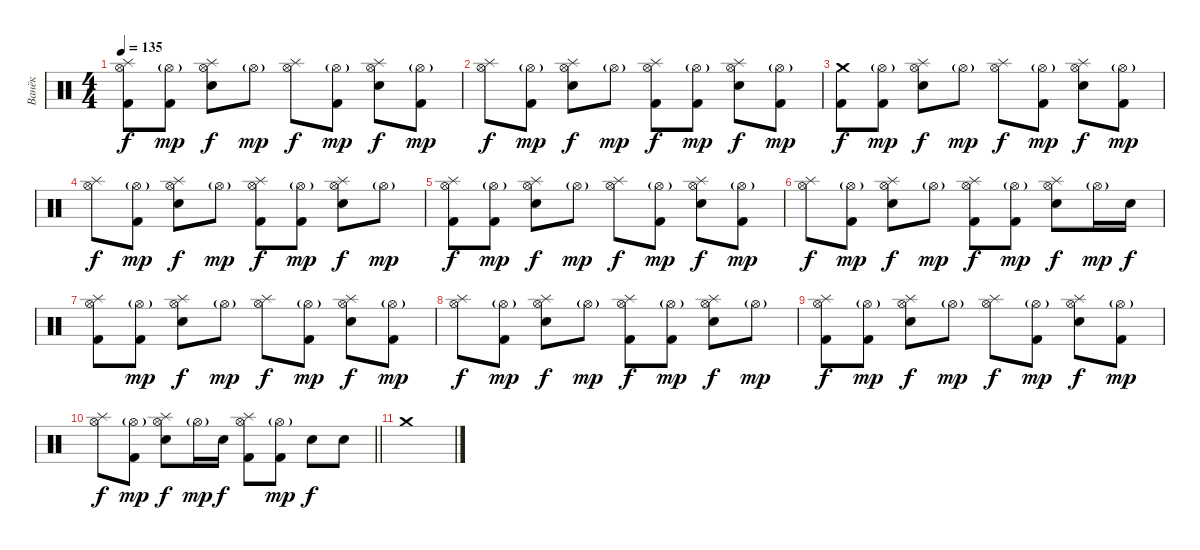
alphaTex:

\track ("Ванёк" "Ванёк") {instrument percussion}
\staff {score}
\articulation defaults
\ts (4 4)
\tempo 135
\clef neutral
\ks c
("Hi-Hat (open)" "Splash (hit)" "Kick (hit) 2").8{dy f} ("Hi-Hat (open)"{g} "Kick (hit) 2").8{dy mp} ("Hi-Hat (open)" "Splash (hit)" "Snare (hit) 2").8{dy f} "Hi-Hat (open)"{g}.8{dy mp} ("Hi-Hat (open)" "Splash (hit)").8{dy f} ("Hi-Hat (open)"{g} "Kick (hit) 2").8{dy mp} ("Hi-Hat (open)" "Splash (hit)" "Snare (hit) 2").8{dy f} ("Hi-Hat (open)"{g} "Kick (hit) 2").8{dy mp} |
("Hi-Hat (open)" "Splash (hit)").8{dy f} ("Hi-Hat (open)"{g} "Kick (hit) 2").8{dy mp} ("Hi-Hat (open)" "Splash (hit)" "Snare (hit) 2").8{dy f} "Hi-Hat (open)"{g}.8{dy mp} ("Hi-Hat (open)" "Splash (hit)" "Kick (hit) 2").8{dy f} ("Hi-Hat (open)"{g} "Kick (hit) 2").8{dy mp} ("Hi-Hat (open)" "Splash (hit)" "Snare (hit) 2").8{dy f} ("Hi-Hat (open)"{g} "Kick (hit) 2").8{dy mp} |
("Crash medium (hit)" "Kick (hit) 2").8{dy f} ("Hi-Hat (open)"{g} "Kick (hit) 2").8{dy mp} ("Hi-Hat (open)" "Splash (hit)" "Snare (hit) 2").8{dy f} "Hi-Hat (open)"{g}.8{dy mp} ("Hi-Hat (open)" "Splash (hit)").8{dy f} ("Hi-Hat (open)"{g} "Kick (hit) 2").8{dy mp} ("Hi-Hat (open)" "Splash (hit)" "Snare (hit) 2").8{dy f} ("Hi-Hat (open)"{g} "Kick (hit) 2").8{dy mp} |
("Hi-Hat (open)" "Splash (hit)").8{dy f} ("Hi-Hat (open)"{g} "Kick (hit) 2").8{dy mp} ("Hi-Hat (open)" "Splash (hit)" "Snare (hit) 2").8{dy f} "Hi-Hat (open)"{g}.8{dy mp} ("Hi-Hat (open)" "Splash (hit)" "Kick (hit) 2").8{dy f} ("Hi-Hat (open)"{g} "Kick (hit) 2").8{dy mp} ("Hi-Hat (open)" "Splash (hit)" "Snare (hit) 2").8{dy f} "Hi-Hat (open)"{g}.8{dy mp} |
("Hi-Hat (open)" "Splash (hit)" "Kick (hit) 2").8{dy f} ("Hi-Hat (open)"{g} "Kick (hit) 2").8{dy mp} ("Hi-Hat (open)" "Splash (hit)" "Snare (hit) 2").8{dy f} "Hi-Hat (open)"{g}.8{dy mp} ("Hi-Hat (open)" "Splash (hit)").8{dy f} ("Hi-Hat (open)"{g} "Kick (hit) 2").8{dy mp} ("Hi-Hat (open)" "Splash (hit)" "Snare (hit) 2").8{dy f} ("Hi-Hat (open)"{g} "Kick (hit) 2").8{dy mp} |
("Hi-Hat (open)" "Splash (hit)").8{dy f} ("Hi-Hat (open)"{g} "Kick (hit) 2").8{dy mp} ("Hi-Hat (open)" "Splash (hit)" "Snare (hit) 2").8{dy f} "Hi-Hat (open)"{g}.8{dy mp} ("Hi-Hat (open)" "Splash (hit)" "Kick (hit) 2").8{dy f} ("Hi-Hat (open)"{g} "Kick (hit) 2").8{dy mp} ("Hi-Hat (open)" "Splash (hit)" "Snare (hit) 2").8{dy f} "Hi-Hat (open)"{g}.16{dy mp} "Snare (hit) 2".16{dy f} |
("Hi-Hat (open)" "Splash (hit)" "Kick (hit) 2").8 ("Hi-Hat (open)"{g} "Kick (hit) 2").8{dy mp} ("Hi-Hat (open)" "Splash (hit)" "Snare (hit) 2").8{dy f} "Hi-Hat (open)"{g}.8{dy mp} ("Hi-Hat (open)" "Splash (hit)").8{dy f} ("Hi-Hat (open)"{g} "Kick (hit) 2").8{dy mp} ("Hi-Hat (open)" "Splash (hit)" "Snare (hit) 2").8{dy f} ("Hi-Hat (open)"{g} "Kick (hit) 2").8{dy mp} |
("Hi-Hat (open)" "Splash (hit)").8{dy f} ("Hi-Hat (open)"{g} "Kick (hit) 2").8{dy mp} ("Hi-Hat (open)" "Splash (hit)" "Snare (hit) 2").8{dy f} "Hi-Hat (open)"{g}.8{dy mp} ("Hi-Hat (open)" "Splash (hit)" "Kick (hit) 2").8{dy f} ("Hi-Hat (open)"{g} "Kick (hit) 2").8{dy mp} ("Hi-Hat (open)" "Splash (hit)" "Snare (hit) 2").8{dy f} "Hi-Hat (open)"{g}.8{dy mp} |
("Hi-Hat (open)" "Splash (hit)" "Kick (hit) 2").8{dy f} ("Hi-Hat (open)"{g} "Kick (hit) 2").8{dy mp} ("Hi-Hat (open)" "Splash (hit)" "Snare (hit) 2").8{dy f} "Hi-Hat (open)"{g}.8{dy mp} ("Hi-Hat (open)" "Splash (hit)").8{dy f} ("Hi-Hat (open)"{g} "Kick (hit) 2").8{dy mp} ("Hi-Hat (open)" "Splash (hit)" "Snare (hit) 2").8{dy f} ("Hi-Hat (open)"{g} "Kick (hit) 2").8{dy mp} |
\barLineRight lightlight
("Hi-Hat (open)" "Splash (hit)").8{dy f} ("Hi-Hat (open)"{g} "Kick (hit) 2").8{dy mp} ("Hi-Hat (open)" "Splash (hit)" "Snare (hit) 2").8{dy f} "Hi-Hat (open)"{g}.16{dy mp} "Snare (hit) 2".16{dy f} ("Hi-Hat (open)" "Splash (hit)" "Kick (hit) 2").8 ("Hi-Hat (open)"{g} "Kick (hit) 2").8{dy mp} "Snare (hit) 2".8{dy f} "Snare (hit) 2".8 |
"Crash medium (hit)".1
